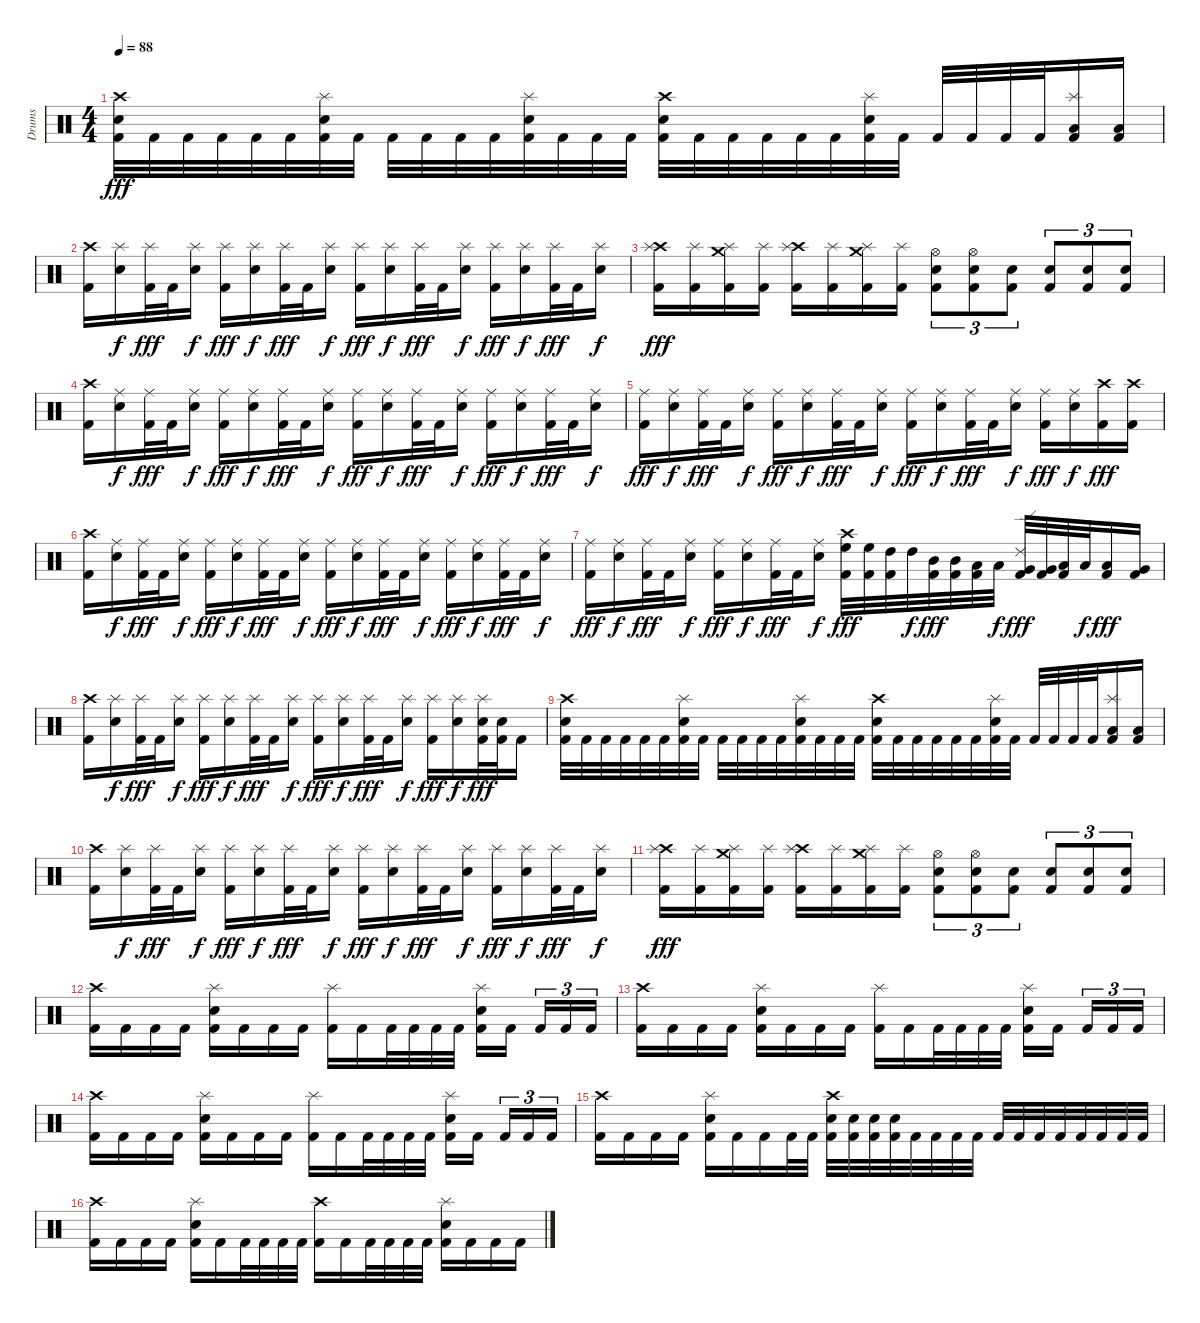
\track ("Drums" "Drums") {instrument percussion}
\staff {score}
\articulation defaults
\ts (4 4)
\tempo 88
\clef neutral
\ks c
("Crash high (hit)" "Snare (hit) 2" "Kick (hit) 2").32{dy fff} "Kick (hit) 2".32 "Kick (hit) 2".32 "Kick (hit) 2".32 "Kick (hit) 2".32 "Kick (hit) 2".32 ("Splash (hit)" "Snare (hit) 2" "Kick (hit) 2").32 "Kick (hit) 2".32 "Kick (hit) 2".32 "Kick (hit) 2".32 "Kick (hit) 2".32 "Kick (hit) 2".32 ("Splash (hit)" "Snare (hit) 2" "Kick (hit) 2").32 "Kick (hit) 2".32 "Kick (hit) 2".32 "Kick (hit) 2".32 ("Crash high (hit)" "Snare (hit) 2" "Kick (hit) 2").32 "Kick (hit) 2".32 "Kick (hit) 2".32 "Kick (hit) 2".32 "Kick (hit) 2".32 "Kick (hit) 2".32 ("Splash (hit)" "Snare (hit) 2" "Kick (hit) 2").32 "Kick (hit) 2".32 "Kick (hit) 2".32 "Kick (hit) 2".32 "Kick (hit) 2".32 "Kick (hit) 2".32 ("Splash (hit)" "Low Tom (hit)" "Kick (hit) 2").16 ("Low Tom (hit)" "Kick (hit) 2").16 |
("Crash high (hit)" "Kick (hit) 2").16 ("Splash (hit)" "Snare (hit) 2").16{dy f} ("Splash (hit)" "Kick (hit) 2").32{dy fff} "Kick (hit) 2".32 ("Splash (hit)" "Snare (hit) 2").16{dy f} ("Splash (hit)" "Kick (hit) 2").16{dy fff} ("Splash (hit)" "Snare (hit) 2").16{dy f} ("Splash (hit)" "Kick (hit) 2").32{dy fff} "Kick (hit) 2".32 ("Splash (hit)" "Snare (hit) 2").16{dy f} ("Splash (hit)" "Kick (hit) 2").16{dy fff} ("Splash (hit)" "Snare (hit) 2").16{dy f} ("Splash (hit)" "Kick (hit) 2").32{dy fff} "Kick (hit) 2".32 ("Splash (hit)" "Snare (hit) 2").16{dy f} ("Splash (hit)" "Kick (hit) 2").16{dy fff} ("Splash (hit)" "Snare (hit) 2").16{dy f} ("Splash (hit)" "Kick (hit) 2").32{dy fff} "Kick (hit) 2".32 ("Splash (hit)" "Snare (hit) 2").16{dy f} |
("Crash high (hit)" "Splash (hit)" "Kick (hit) 2").16{dy fff} ("Splash (hit)" "Kick (hit) 2").16 ("Crash medium (hit)" "Splash (hit)" "Kick (hit) 2").16 ("Splash (hit)" "Kick (hit) 2").16 ("Crash high (hit)" "Splash (hit)" "Kick (hit) 2").16 ("Splash (hit)" "Kick (hit) 2").16 ("Crash medium (hit)" "Splash (hit)" "Kick (hit) 2").16 ("Splash (hit)" "Kick (hit) 2").16 ("Hi-Hat (open)" "Snare (hit) 2" "Kick (hit) 2").8{tu (3 2)} ("Hi-Hat (open)" "Snare (hit) 2" "Kick (hit) 2").8{tu (3 2)} ("Snare (hit) 2" "Kick (hit) 2").8{tu (3 2)} ("Snare (hit) 2" "Kick (hit) 2").8{tu (3 2)} ("Snare (hit) 2" "Kick (hit) 2").8{tu (3 2)} ("Snare (hit) 2" "Kick (hit) 2").8{tu (3 2)} |
("Crash high (hit)" "Kick (hit) 2").16 ("Ride (middle)" "Snare (hit) 2").16{dy f} ("Ride (middle)" "Kick (hit) 2").32{dy fff} "Kick (hit) 2".32 ("Ride (middle)" "Snare (hit) 2").16{dy f} ("Ride (middle)" "Kick (hit) 2").16{dy fff} ("Ride (middle)" "Snare (hit) 2").16{dy f} ("Ride (middle)" "Kick (hit) 2").32{dy fff} "Kick (hit) 2".32 ("Ride (middle)" "Snare (hit) 2").16{dy f} ("Ride (middle)" "Kick (hit) 2").16{dy fff} ("Ride (middle)" "Snare (hit) 2").16{dy f} ("Ride (middle)" "Kick (hit) 2").32{dy fff} "Kick (hit) 2".32 ("Ride (middle)" "Snare (hit) 2").16{dy f} ("Ride (middle)" "Kick (hit) 2").16{dy fff} ("Ride (middle)" "Snare (hit) 2").16{dy f} ("Ride (middle)" "Kick (hit) 2").32{dy fff} "Kick (hit) 2".32 ("Ride (middle)" "Snare (hit) 2").16{dy f} |
("Ride (middle)" "Kick (hit) 2").16{dy fff} ("Ride (middle)" "Snare (hit) 2").16{dy f} ("Ride (middle)" "Kick (hit) 2").32{dy fff} "Kick (hit) 2".32 ("Ride (middle)" "Snare (hit) 2").16{dy f} ("Ride (middle)" "Kick (hit) 2").16{dy fff} ("Ride (middle)" "Snare (hit) 2").16{dy f} ("Ride (middle)" "Kick (hit) 2").32{dy fff} "Kick (hit) 2".32 ("Ride (middle)" "Snare (hit) 2").16{dy f} ("Ride (middle)" "Kick (hit) 2").16{dy fff} ("Ride (middle)" "Snare (hit) 2").16{dy f} ("Ride (middle)" "Kick (hit) 2").32{dy fff} "Kick (hit) 2".32 ("Ride (middle)" "Snare (hit) 2").16{dy f} ("Ride (middle)" "Kick (hit) 2").16{dy fff} ("Ride (middle)" "Snare (hit) 2").16{dy f} ("Crash high (hit)" "Kick (hit) 2").16{dy fff} ("Crash high (hit)" "Kick (hit) 2").16 |
("Crash high (hit)" "Kick (hit) 2").16 ("Ride (middle)" "Snare (hit) 2").16{dy f} ("Ride (middle)" "Kick (hit) 2").32{dy fff} "Kick (hit) 2".32 ("Ride (middle)" "Snare (hit) 2").16{dy f} ("Ride (middle)" "Kick (hit) 2").16{dy fff} ("Ride (middle)" "Snare (hit) 2").16{dy f} ("Ride (middle)" "Kick (hit) 2").32{dy fff} "Kick (hit) 2".32 ("Ride (middle)" "Snare (hit) 2").16{dy f} ("Ride (middle)" "Kick (hit) 2").16{dy fff} ("Ride (middle)" "Snare (hit) 2").16{dy f} ("Ride (middle)" "Kick (hit) 2").32{dy fff} "Kick (hit) 2".32 ("Ride (middle)" "Snare (hit) 2").16{dy f} ("Ride (middle)" "Kick (hit) 2").16{dy fff} ("Ride (middle)" "Snare (hit) 2").16{dy f} ("Ride (middle)" "Kick (hit) 2").32{dy fff} "Kick (hit) 2".32 ("Ride (middle)" "Snare (hit) 2").16{dy f} |
("Ride (middle)" "Kick (hit) 2").16{dy fff} ("Ride (middle)" "Snare (hit) 2").16{dy f} ("Ride (middle)" "Kick (hit) 2").32{dy fff} "Kick (hit) 2".32 ("Ride (middle)" "Snare (hit) 2").16{dy f} ("Ride (middle)" "Kick (hit) 2").16{dy fff} ("Ride (middle)" "Snare (hit) 2").16{dy f} ("Ride (middle)" "Kick (hit) 2").32{dy fff} "Kick (hit) 2".32 ("Ride (middle)" "Snare (hit) 2").16{dy f} ("Crash high (hit)" "High Floor Tom (hit)" "Kick (hit) 2").32{dy fff} ("High Floor Tom (hit)" "Kick (hit) 2").32 ("High Tom (hit)" "Kick (hit) 2").32 "High Tom (hit)".32{dy f} ("Mid Tom (hit)" "Kick (hit) 2").32{dy fff} ("Mid Tom (hit)" "Kick (hit) 2").32 ("Low Tom (hit)" "Kick (hit) 2").32 "Low Tom (hit)".32{dy f} ("Ride (edge) 2" "Very Low Tom (hit)" "Kick (hit) 2").32{dy fff} ("Very Low Tom (hit)" "Kick (hit) 2").32 ("Low Floor Tom (hit)" "Kick (hit) 2").32 "Low Floor Tom (hit)".32{dy f} ("Low Tom (hit)" "Kick (hit) 2").16{dy fff} ("Very Low Tom (hit)" "Kick (hit) 2").16 |
("Crash high (hit)" "Kick (hit) 2").16 ("Splash (hit)" "Snare (hit) 2").16{dy f} ("Splash (hit)" "Kick (hit) 2").32{dy fff} "Kick (hit) 2".32 ("Splash (hit)" "Snare (hit) 2").16{dy f} ("Splash (hit)" "Kick (hit) 2").16{dy fff} ("Splash (hit)" "Snare (hit) 2").16{dy f} ("Splash (hit)" "Kick (hit) 2").32{dy fff} "Kick (hit) 2".32 ("Splash (hit)" "Snare (hit) 2").16{dy f} ("Splash (hit)" "Kick (hit) 2").16{dy fff} ("Splash (hit)" "Snare (hit) 2").16{dy f} ("Splash (hit)" "Kick (hit) 2").32{dy fff} "Kick (hit) 2".32 ("Splash (hit)" "Snare (hit) 2").16{dy f} ("Splash (hit)" "Kick (hit) 2").16{dy fff} ("Splash (hit)" "Snare (hit) 2").16{dy f} ("Splash (hit)" "Snare (hit) 2" "Kick (hit) 2").32{dy fff} ("Snare (hit) 2" "Kick (hit) 2").32 "Kick (hit) 2".16 |
("Crash high (hit)" "Snare (hit) 2" "Kick (hit) 2").32 "Kick (hit) 2".32 "Kick (hit) 2".32 "Kick (hit) 2".32 "Kick (hit) 2".32 "Kick (hit) 2".32 ("Splash (hit)" "Snare (hit) 2" "Kick (hit) 2").32 "Kick (hit) 2".32 "Kick (hit) 2".32 "Kick (hit) 2".32 "Kick (hit) 2".32 "Kick (hit) 2".32 ("Splash (hit)" "Snare (hit) 2" "Kick (hit) 2").32 "Kick (hit) 2".32 "Kick (hit) 2".32 "Kick (hit) 2".32 ("Crash high (hit)" "Snare (hit) 2" "Kick (hit) 2").32 "Kick (hit) 2".32 "Kick (hit) 2".32 "Kick (hit) 2".32 "Kick (hit) 2".32 "Kick (hit) 2".32 ("Splash (hit)" "Snare (hit) 2" "Kick (hit) 2").32 "Kick (hit) 2".32 "Kick (hit) 2".32 "Kick (hit) 2".32 "Kick (hit) 2".32 "Kick (hit) 2".32 ("Splash (hit)" "Low Tom (hit)" "Kick (hit) 2").16 ("Low Tom (hit)" "Kick (hit) 2").16 |
("Crash high (hit)" "Kick (hit) 2").16 ("Splash (hit)" "Snare (hit) 2").16{dy f} ("Splash (hit)" "Kick (hit) 2").32{dy fff} "Kick (hit) 2".32 ("Splash (hit)" "Snare (hit) 2").16{dy f} ("Splash (hit)" "Kick (hit) 2").16{dy fff} ("Splash (hit)" "Snare (hit) 2").16{dy f} ("Splash (hit)" "Kick (hit) 2").32{dy fff} "Kick (hit) 2".32 ("Splash (hit)" "Snare (hit) 2").16{dy f} ("Splash (hit)" "Kick (hit) 2").16{dy fff} ("Splash (hit)" "Snare (hit) 2").16{dy f} ("Splash (hit)" "Kick (hit) 2").32{dy fff} "Kick (hit) 2".32 ("Splash (hit)" "Snare (hit) 2").16{dy f} ("Splash (hit)" "Kick (hit) 2").16{dy fff} ("Splash (hit)" "Snare (hit) 2").16{dy f} ("Splash (hit)" "Kick (hit) 2").32{dy fff} "Kick (hit) 2".32 ("Splash (hit)" "Snare (hit) 2").16{dy f} |
("Crash high (hit)" "Splash (hit)" "Kick (hit) 2").16{dy fff} ("Splash (hit)" "Kick (hit) 2").16 ("Crash medium (hit)" "Splash (hit)" "Kick (hit) 2").16 ("Splash (hit)" "Kick (hit) 2").16 ("Crash high (hit)" "Splash (hit)" "Kick (hit) 2").16 ("Splash (hit)" "Kick (hit) 2").16 ("Crash medium (hit)" "Splash (hit)" "Kick (hit) 2").16 ("Splash (hit)" "Kick (hit) 2").16 ("Hi-Hat (open)" "Snare (hit) 2" "Kick (hit) 2").8{tu (3 2)} ("Hi-Hat (open)" "Snare (hit) 2" "Kick (hit) 2").8{tu (3 2)} ("Snare (hit) 2" "Kick (hit) 2").8{tu (3 2)} ("Snare (hit) 2" "Kick (hit) 2").8{tu (3 2)} ("Snare (hit) 2" "Kick (hit) 2").8{tu (3 2)} ("Snare (hit) 2" "Kick (hit) 2").8{tu (3 2)} |
("Crash high (hit)" "Kick (hit) 2").16 "Kick (hit) 2".16 "Kick (hit) 2".16 "Kick (hit) 2".16 ("Splash (hit)" "Snare (hit) 2" "Kick (hit) 2").16 "Kick (hit) 2".16 "Kick (hit) 2".16 "Kick (hit) 2".16 ("Splash (hit)" "Kick (hit) 2").16 "Kick (hit) 2".16 "Kick (hit) 2".32 "Kick (hit) 2".32 "Kick (hit) 2".32 "Kick (hit) 2".32 ("Splash (hit)" "Snare (hit) 2" "Kick (hit) 2").16 "Kick (hit) 2".16 "Kick (hit) 2".16{tu (3 2)} "Kick (hit) 2".16{tu (3 2)} "Kick (hit) 2".16{tu (3 2)} |
("Crash high (hit)" "Kick (hit) 2").16 "Kick (hit) 2".16 "Kick (hit) 2".16 "Kick (hit) 2".16 ("Splash (hit)" "Snare (hit) 2" "Kick (hit) 2").16 "Kick (hit) 2".16 "Kick (hit) 2".16 "Kick (hit) 2".16 ("Splash (hit)" "Kick (hit) 2").16 "Kick (hit) 2".16 "Kick (hit) 2".32 "Kick (hit) 2".32 "Kick (hit) 2".32 "Kick (hit) 2".32 ("Splash (hit)" "Snare (hit) 2" "Kick (hit) 2").16 "Kick (hit) 2".16 "Kick (hit) 2".16{tu (3 2)} "Kick (hit) 2".16{tu (3 2)} "Kick (hit) 2".16{tu (3 2)} |
("Crash high (hit)" "Kick (hit) 2").16 "Kick (hit) 2".16 "Kick (hit) 2".16 "Kick (hit) 2".16 ("Splash (hit)" "Snare (hit) 2" "Kick (hit) 2").16 "Kick (hit) 2".16 "Kick (hit) 2".16 "Kick (hit) 2".16 ("Splash (hit)" "Kick (hit) 2").16 "Kick (hit) 2".16 "Kick (hit) 2".32 "Kick (hit) 2".32 "Kick (hit) 2".32 "Kick (hit) 2".32 ("Splash (hit)" "Snare (hit) 2" "Kick (hit) 2").16 "Kick (hit) 2".16 "Kick (hit) 2".16{tu (3 2)} "Kick (hit) 2".16{tu (3 2)} "Kick (hit) 2".16{tu (3 2)} |
("Crash high (hit)" "Kick (hit) 2").16 "Kick (hit) 2".16 "Kick (hit) 2".16 "Kick (hit) 2".16 ("Splash (hit)" "Snare (hit) 2" "Kick (hit) 2").16 "Kick (hit) 2".16 "Kick (hit) 2".16 "Kick (hit) 2".32 "Kick (hit) 2".32 ("Crash high (hit)" "Snare (hit) 2" "Kick (hit) 2").32 ("Snare (hit) 2" "Kick (hit) 2").32 ("Snare (hit) 2" "Kick (hit) 2").32 ("Snare (hit) 2" "Kick (hit) 2").32 "Kick (hit) 2".32 "Kick (hit) 2".32 "Kick (hit) 2".32 "Kick (hit) 2".32 "Kick (hit) 2".32 "Kick (hit) 2".32 "Kick (hit) 2".32 "Kick (hit) 2".32 "Kick (hit) 2".32 "Kick (hit) 2".32 "Kick (hit) 2".32 "Kick (hit) 2".32 |
("Crash high (hit)" "Kick (hit) 2").16 "Kick (hit) 2".16 "Kick (hit) 2".16 "Kick (hit) 2".16 ("Splash (hit)" "Snare (hit) 2" "Kick (hit) 2").16 "Kick (hit) 2".16 "Kick (hit) 2".32 "Kick (hit) 2".32 "Kick (hit) 2".32 "Kick (hit) 2".32 ("Crash high (hit)" "Kick (hit) 2").16 "Kick (hit) 2".16 "Kick (hit) 2".32 "Kick (hit) 2".32 "Kick (hit) 2".32 "Kick (hit) 2".32 ("Splash (hit)" "Snare (hit) 2" "Kick (hit) 2").16 "Kick (hit) 2".16 "Kick (hit) 2".16 "Kick (hit) 2".16
